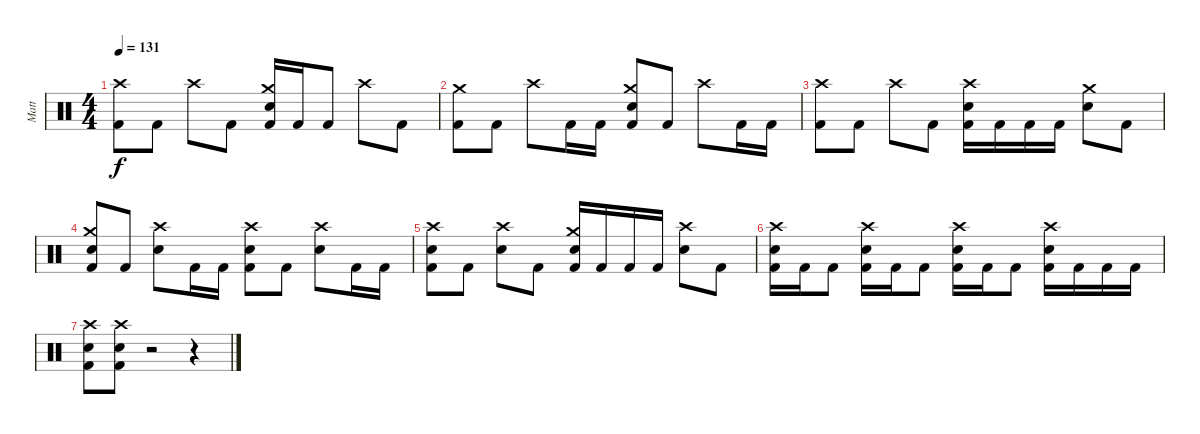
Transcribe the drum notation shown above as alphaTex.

\track ("Matt" "Matt") {instrument percussion}
\staff {score}
\articulation defaults
\ts (4 4)
\tempo 131
\clef neutral
\ks c
("Crash high (hit)" "Kick (hit) 2").8{dy f} "Kick (hit) 2".8 "Crash high (hit)".8 "Kick (hit) 2".8 ("Crash medium (hit)" "Electric Snare (hit)" "Kick (hit) 2").16 "Kick (hit) 2".16 "Kick (hit) 2".8 "Crash high (hit)".8 "Kick (hit) 2".8 |
("Crash medium (hit)" "Kick (hit) 2").8 "Kick (hit) 2".8 "Crash high (hit)".8 "Kick (hit) 2".16 "Kick (hit) 2".16 ("Crash medium (hit)" "Electric Snare (hit)" "Kick (hit) 2").8 "Kick (hit) 2".8 "Crash high (hit)".8 "Kick (hit) 2".16 "Kick (hit) 2".16 |
("Crash high (hit)" "Kick (hit) 2").8 "Kick (hit) 2".8 "Crash high (hit)".8 "Kick (hit) 2".8 ("Crash high (hit)" "Electric Snare (hit)" "Kick (hit) 2").16 "Kick (hit) 2".16 "Kick (hit) 2".16 "Kick (hit) 2".16 ("Crash medium (hit)" "Electric Snare (hit)").8 "Kick (hit) 2".8 |
("Crash medium (hit)" "Electric Snare (hit)" "Kick (hit) 2").8 "Kick (hit) 2".8 ("Crash high (hit)" "Electric Snare (hit)").8 "Kick (hit) 2".16 "Kick (hit) 2".16 ("Crash high (hit)" "Electric Snare (hit)" "Kick (hit) 2").8 "Kick (hit) 2".8 ("Crash high (hit)" "Electric Snare (hit)").8 "Kick (hit) 2".16 "Kick (hit) 2".16 |
("Crash high (hit)" "Electric Snare (hit)" "Kick (hit) 2").8 "Kick (hit) 2".8 ("Crash high (hit)" "Electric Snare (hit)").8 "Kick (hit) 2".8 ("Crash medium (hit)" "Electric Snare (hit)" "Kick (hit) 2").16 "Kick (hit) 2".16 "Kick (hit) 2".16 "Kick (hit) 2".16 ("Crash high (hit)" "Electric Snare (hit)").8 "Kick (hit) 2".8 |
("Crash high (hit)" "Electric Snare (hit)" "Kick (hit) 2").16 "Kick (hit) 2".16 "Kick (hit) 2".8 ("Crash high (hit)" "Electric Snare (hit)" "Kick (hit) 2").16 "Kick (hit) 2".16 "Kick (hit) 2".8 ("Crash high (hit)" "Electric Snare (hit)" "Kick (hit) 2").16 "Kick (hit) 2".16 "Kick (hit) 2".8 ("Crash high (hit)" "Electric Snare (hit)" "Kick (hit) 2").16 "Kick (hit) 2".16 "Kick (hit) 2".16 "Kick (hit) 2".16 |
("Crash high (hit)" "Electric Snare (hit)" "Kick (hit) 2").8 ("Crash high (hit)" "Electric Snare (hit)" "Kick (hit) 2").8 r.2 r.4
